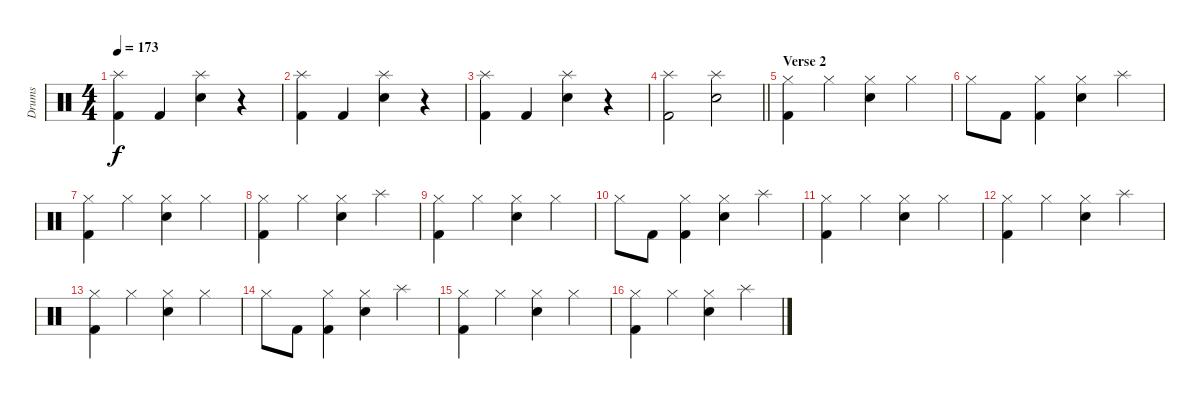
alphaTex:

\track ("Drums" "Drums") {instrument percussion}
\staff {score}
\articulation defaults
\ts (4 4)
\tempo 173
\clef neutral
\ks c
("Splash (hit)" "Kick (hit) 2").4{dy f} "Kick (hit) 2".4 ("Splash (hit)" "Snare (hit) 2").4 r.4 |
("Splash (hit)" "Kick (hit) 2").4 "Kick (hit) 2".4 ("Splash (hit)" "Snare (hit) 2").4 r.4 |
("Splash (hit)" "Kick (hit) 2").4 "Kick (hit) 2".4 ("Splash (hit)" "Snare (hit) 2").4 r.4 |
\barLineRight lightlight
("Splash (hit)" "Kick (hit) 2").2 ("Splash (hit)" "Snare (hit) 2").2 |
\section ("" "Verse 2")
("Hi-Hat (closed)" "Kick (hit) 2").4 "Hi-Hat (closed)".4 ("Hi-Hat (closed)" "Snare (hit) 2").4 "Hi-Hat (closed)".4 |
"Hi-Hat (closed)".8 "Kick (hit) 2".8 ("Hi-Hat (closed)" "Kick (hit) 2").4 ("Hi-Hat (closed)" "Snare (hit) 2").4 "Splash (hit)".4 |
("Hi-Hat (closed)" "Kick (hit) 2").4 "Hi-Hat (closed)".4 ("Hi-Hat (closed)" "Snare (hit) 2").4 "Hi-Hat (closed)".4 |
("Hi-Hat (closed)" "Kick (hit) 2").4 "Hi-Hat (closed)".4 ("Hi-Hat (closed)" "Snare (hit) 2").4 "Splash (hit)".4 |
("Hi-Hat (closed)" "Kick (hit) 2").4 "Hi-Hat (closed)".4 ("Hi-Hat (closed)" "Snare (hit) 2").4 "Hi-Hat (closed)".4 |
"Hi-Hat (closed)".8 "Kick (hit) 2".8 ("Hi-Hat (closed)" "Kick (hit) 2").4 ("Hi-Hat (closed)" "Snare (hit) 2").4 "Splash (hit)".4 |
("Hi-Hat (closed)" "Kick (hit) 2").4 "Hi-Hat (closed)".4 ("Hi-Hat (closed)" "Snare (hit) 2").4 "Hi-Hat (closed)".4 |
("Hi-Hat (closed)" "Kick (hit) 2").4 "Hi-Hat (closed)".4 ("Hi-Hat (closed)" "Snare (hit) 2").4 "Splash (hit)".4 |
("Hi-Hat (closed)" "Kick (hit) 2").4 "Hi-Hat (closed)".4 ("Hi-Hat (closed)" "Snare (hit) 2").4 "Hi-Hat (closed)".4 |
"Hi-Hat (closed)".8 "Kick (hit) 2".8 ("Hi-Hat (closed)" "Kick (hit) 2").4 ("Hi-Hat (closed)" "Snare (hit) 2").4 "Splash (hit)".4 |
("Hi-Hat (closed)" "Kick (hit) 2").4 "Hi-Hat (closed)".4 ("Hi-Hat (closed)" "Snare (hit) 2").4 "Hi-Hat (closed)".4 |
("Hi-Hat (closed)" "Kick (hit) 2").4 "Hi-Hat (closed)".4 ("Hi-Hat (closed)" "Snare (hit) 2").4 "Splash (hit)".4
